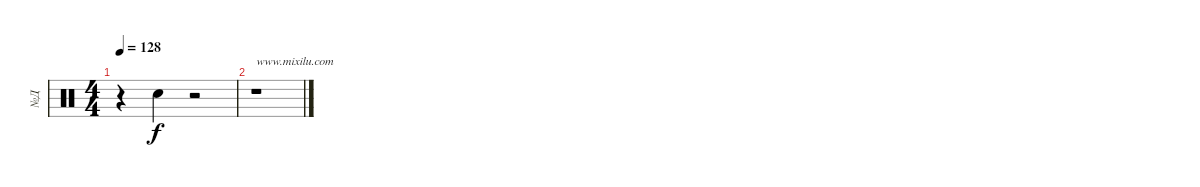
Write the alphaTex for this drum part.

\track ("№Д" "№Д") {instrument percussion}
\staff {score}
\articulation defaults
\ts (4 4)
\tempo 128
\clef neutral
\ks c
r.4{dy f} "Hand Clap (hit)".4 r.2 |
r.1{txt "www.mixilu.com"}
